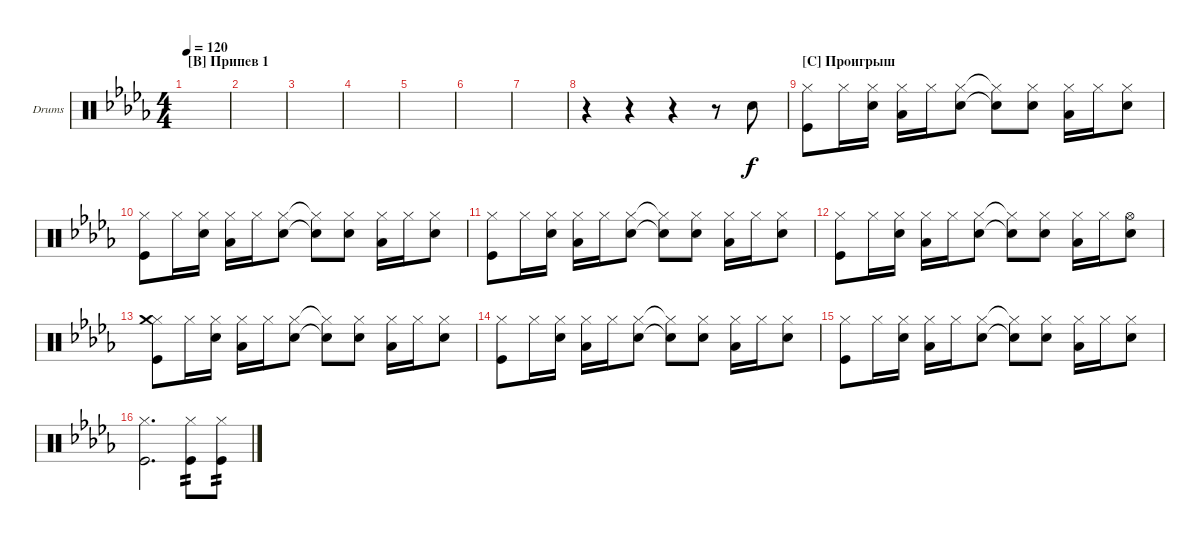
\defaultSystemsLayout 4
\bracketExtendMode groupsimilarinstruments
\firstSystemTrackNameOrientation horizontal
\otherSystemsTrackNameOrientation horizontal
\track ("Ударные" "Drums") {instrument percussion}
\staff {score}
\articulation defaults
\ts (4 4)
\section ("B" "Припев 1")
\tempo 120
\clef neutral
\scale
0.5
\ks db
|
\scale
0.5 |
\scale
0.5 |
\scale
0.5 |
|
|
|
r.4 r.4 r.4 r.8 "Snare (hit) 2".8 |
\section ("C" "Проигрыш")
("Kick (hit)" "Hi-Hat (closed)").8 "Hi-Hat (closed)".16 ("Hi-Hat (closed)" "Snare (hit) 2").16 ("Hi-Hat (closed)" "Low Tom (hit)").16 "Hi-Hat (closed)".16 ("Hi-Hat (closed)" "Snare (hit) 2").8 ("Hi-Hat (closed)"{t} "Snare (hit) 2"{t}).8 ("Hi-Hat (closed)" "Snare (hit) 2").8 ("Hi-Hat (closed)" "Low Tom (hit)").16 "Hi-Hat (closed)".16 ("Hi-Hat (closed)" "Snare (hit) 2").8 |
("Kick (hit)" "Hi-Hat (closed)").8 "Hi-Hat (closed)".16 ("Hi-Hat (closed)" "Snare (hit) 2").16 ("Hi-Hat (closed)" "Low Tom (hit)").16 "Hi-Hat (closed)".16 ("Hi-Hat (closed)" "Snare (hit) 2").8 ("Hi-Hat (closed)"{t} "Snare (hit) 2"{t}).8 ("Hi-Hat (closed)" "Snare (hit) 2").8 ("Hi-Hat (closed)" "Low Tom (hit)").16 "Hi-Hat (closed)".16 ("Hi-Hat (closed)" "Snare (hit) 2").8 |
("Kick (hit)" "Hi-Hat (closed)").8 "Hi-Hat (closed)".16 ("Hi-Hat (closed)" "Snare (hit) 2").16 ("Hi-Hat (closed)" "Low Tom (hit)").16 "Hi-Hat (closed)".16 ("Hi-Hat (closed)" "Snare (hit) 2").8 ("Hi-Hat (closed)"{t} "Snare (hit) 2"{t}).8 ("Hi-Hat (closed)" "Snare (hit) 2").8 ("Hi-Hat (closed)" "Low Tom (hit)").16 "Hi-Hat (closed)".16 ("Hi-Hat (closed)" "Snare (hit) 2").8 |
("Kick (hit)" "Hi-Hat (closed)").8 "Hi-Hat (closed)".16 ("Hi-Hat (closed)" "Snare (hit) 2").16 ("Hi-Hat (closed)" "Low Tom (hit)").16 "Hi-Hat (closed)".16 ("Hi-Hat (closed)" "Snare (hit) 2").8 ("Hi-Hat (closed)"{t} "Snare (hit) 2"{t}).8 ("Hi-Hat (closed)" "Snare (hit) 2").8 ("Hi-Hat (closed)" "Low Tom (hit)").16 "Hi-Hat (closed)".16 ("Hi-Hat (open)" "Snare (hit) 2").8 |
("Kick (hit)" "Hi-Hat (closed)" "Crash medium (hit)").8 "Hi-Hat (closed)".16 ("Hi-Hat (closed)" "Snare (hit) 2").16 ("Hi-Hat (closed)" "Low Tom (hit)").16 "Hi-Hat (closed)".16 ("Hi-Hat (closed)" "Snare (hit) 2").8 ("Hi-Hat (closed)"{t} "Snare (hit) 2"{t}).8 ("Hi-Hat (closed)" "Snare (hit) 2").8 ("Hi-Hat (closed)" "Low Tom (hit)").16 "Hi-Hat (closed)".16 ("Hi-Hat (closed)" "Snare (hit) 2").8 |
("Kick (hit)" "Hi-Hat (closed)").8 "Hi-Hat (closed)".16 ("Hi-Hat (closed)" "Snare (hit) 2").16 ("Hi-Hat (closed)" "Low Tom (hit)").16 "Hi-Hat (closed)".16 ("Hi-Hat (closed)" "Snare (hit) 2").8 ("Hi-Hat (closed)"{t} "Snare (hit) 2"{t}).8 ("Hi-Hat (closed)" "Snare (hit) 2").8 ("Hi-Hat (closed)" "Low Tom (hit)").16 "Hi-Hat (closed)".16 ("Hi-Hat (closed)" "Snare (hit) 2").8 |
("Kick (hit)" "Hi-Hat (closed)").8 "Hi-Hat (closed)".16 ("Hi-Hat (closed)" "Snare (hit) 2").16 ("Hi-Hat (closed)" "Low Tom (hit)").16 "Hi-Hat (closed)".16 ("Hi-Hat (closed)" "Snare (hit) 2").8 ("Hi-Hat (closed)"{t} "Snare (hit) 2"{t}).8 ("Hi-Hat (closed)" "Snare (hit) 2").8 ("Hi-Hat (closed)" "Low Tom (hit)").16 "Hi-Hat (closed)".16 ("Hi-Hat (closed)" "Snare (hit) 2").8 |
("Kick (hit)" "Hi-Hat (closed)").2{d} ("Hi-Hat (closed)" "Kick (hit)").8{tp 2} ("Hi-Hat (closed)" "Kick (hit)").8{tp 2}
